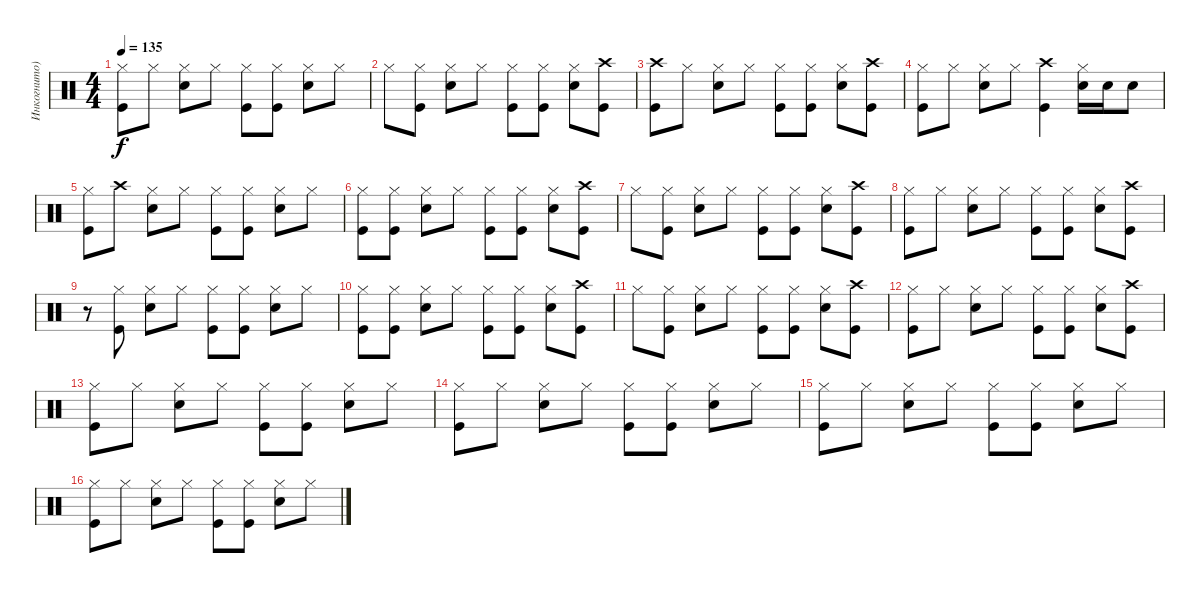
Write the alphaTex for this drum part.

\track ("Инкогнито)" "Инкогнито)") {instrument percussion}
\staff {score}
\articulation defaults
\ts (4 4)
\tempo 135
\clef neutral
\ks c
("Hi-Hat (closed)" "Kick (hit)").8{dy f} "Hi-Hat (closed)".8 ("Hi-Hat (closed)" "Snare (hit) 2").8 "Hi-Hat (closed)".8 ("Hi-Hat (closed)" "Kick (hit)").8 ("Hi-Hat (closed)" "Kick (hit)").8 ("Hi-Hat (closed)" "Snare (hit) 2").8 "Hi-Hat (closed)".8 |
"Hi-Hat (closed)".8 ("Hi-Hat (closed)" "Kick (hit)").8 ("Hi-Hat (closed)" "Snare (hit) 2").8 "Hi-Hat (closed)".8 ("Hi-Hat (closed)" "Kick (hit)").8 ("Hi-Hat (closed)" "Kick (hit)").8 ("Hi-Hat (closed)" "Snare (hit) 2").8 ("Crash high (hit)" "Kick (hit)").8 |
("Crash high (hit)" "Kick (hit)").8 "Hi-Hat (closed)".8 ("Hi-Hat (closed)" "Snare (hit) 2").8 "Hi-Hat (closed)".8 ("Hi-Hat (closed)" "Kick (hit)").8 ("Hi-Hat (closed)" "Kick (hit)").8 ("Hi-Hat (closed)" "Snare (hit) 2").8 ("Crash high (hit)" "Kick (hit)").8 |
("Hi-Hat (closed)" "Kick (hit)").8 "Hi-Hat (closed)".8 ("Hi-Hat (closed)" "Snare (hit) 2").8 "Hi-Hat (closed)".8 ("Crash high (hit)" "Kick (hit)").4 ("Hi-Hat (closed)" "Snare (hit) 2").16 "Snare (hit) 2".16 "Snare (hit) 2".8 |
("Hi-Hat (closed)" "Kick (hit)").8 "Crash high (hit)".8 ("Hi-Hat (closed)" "Snare (hit) 2").8 "Hi-Hat (closed)".8 ("Hi-Hat (closed)" "Kick (hit)").8 ("Hi-Hat (closed)" "Kick (hit)").8 ("Hi-Hat (closed)" "Snare (hit) 2").8 "Hi-Hat (closed)".8 |
("Hi-Hat (closed)" "Kick (hit)").8 ("Hi-Hat (closed)" "Kick (hit)").8 ("Hi-Hat (closed)" "Snare (hit) 2").8 "Hi-Hat (closed)".8 ("Hi-Hat (closed)" "Kick (hit)").8 ("Hi-Hat (closed)" "Kick (hit)").8 ("Hi-Hat (closed)" "Snare (hit) 2").8 ("Crash high (hit)" "Kick (hit)").8 |
"Hi-Hat (closed)".8 ("Hi-Hat (closed)" "Kick (hit)").8 ("Hi-Hat (closed)" "Snare (hit) 2").8 "Hi-Hat (closed)".8 ("Hi-Hat (closed)" "Kick (hit)").8 ("Hi-Hat (closed)" "Kick (hit)").8 ("Hi-Hat (closed)" "Snare (hit) 2").8 ("Crash high (hit)" "Kick (hit)").8 |
("Hi-Hat (closed)" "Kick (hit)").8 "Hi-Hat (closed)".8 ("Hi-Hat (closed)" "Snare (hit) 2").8 "Hi-Hat (closed)".8 ("Hi-Hat (closed)" "Kick (hit)").8 ("Hi-Hat (closed)" "Kick (hit)").8 ("Hi-Hat (closed)" "Snare (hit) 2").8 ("Crash high (hit)" "Kick (hit)").8 |
r.8 ("Hi-Hat (closed)" "Kick (hit)").8 ("Hi-Hat (closed)" "Snare (hit) 2").8 "Hi-Hat (closed)".8 ("Hi-Hat (closed)" "Kick (hit)").8 ("Hi-Hat (closed)" "Kick (hit)").8 ("Hi-Hat (closed)" "Snare (hit) 2").8 "Hi-Hat (closed)".8 |
("Hi-Hat (closed)" "Kick (hit)").8 ("Hi-Hat (closed)" "Kick (hit)").8 ("Hi-Hat (closed)" "Snare (hit) 2").8 "Hi-Hat (closed)".8 ("Hi-Hat (closed)" "Kick (hit)").8 ("Hi-Hat (closed)" "Kick (hit)").8 ("Hi-Hat (closed)" "Snare (hit) 2").8 ("Crash high (hit)" "Kick (hit)").8 |
"Hi-Hat (closed)".8 ("Hi-Hat (closed)" "Kick (hit)").8 ("Hi-Hat (closed)" "Snare (hit) 2").8 "Hi-Hat (closed)".8 ("Hi-Hat (closed)" "Kick (hit)").8 ("Hi-Hat (closed)" "Kick (hit)").8 ("Hi-Hat (closed)" "Snare (hit) 2").8 ("Crash high (hit)" "Kick (hit)").8 |
("Hi-Hat (closed)" "Kick (hit)").8 "Hi-Hat (closed)".8 ("Hi-Hat (closed)" "Snare (hit) 2").8 "Hi-Hat (closed)".8 ("Hi-Hat (closed)" "Kick (hit)").8 ("Hi-Hat (closed)" "Kick (hit)").8 ("Hi-Hat (closed)" "Snare (hit) 2").8 ("Crash high (hit)" "Kick (hit)").8 |
("Hi-Hat (closed)" "Kick (hit)").8 "Hi-Hat (closed)".8 ("Hi-Hat (closed)" "Snare (hit) 2").8 "Hi-Hat (closed)".8 ("Hi-Hat (closed)" "Kick (hit)").8 ("Hi-Hat (closed)" "Kick (hit)").8 ("Hi-Hat (closed)" "Snare (hit) 2").8 "Hi-Hat (closed)".8 |
("Hi-Hat (closed)" "Kick (hit)").8 "Hi-Hat (closed)".8 ("Hi-Hat (closed)" "Snare (hit) 2").8 "Hi-Hat (closed)".8 ("Hi-Hat (closed)" "Kick (hit)").8 ("Hi-Hat (closed)" "Kick (hit)").8 ("Hi-Hat (closed)" "Snare (hit) 2").8 "Hi-Hat (closed)".8 |
("Hi-Hat (closed)" "Kick (hit)").8 "Hi-Hat (closed)".8 ("Hi-Hat (closed)" "Snare (hit) 2").8 "Hi-Hat (closed)".8 ("Hi-Hat (closed)" "Kick (hit)").8 ("Hi-Hat (closed)" "Kick (hit)").8 ("Hi-Hat (closed)" "Snare (hit) 2").8 "Hi-Hat (closed)".8 |
("Hi-Hat (closed)" "Kick (hit)").8 "Hi-Hat (closed)".8 ("Hi-Hat (closed)" "Snare (hit) 2").8 "Hi-Hat (closed)".8 ("Hi-Hat (closed)" "Kick (hit)").8 ("Hi-Hat (closed)" "Kick (hit)").8 ("Hi-Hat (closed)" "Snare (hit) 2").8 "Hi-Hat (closed)".8
